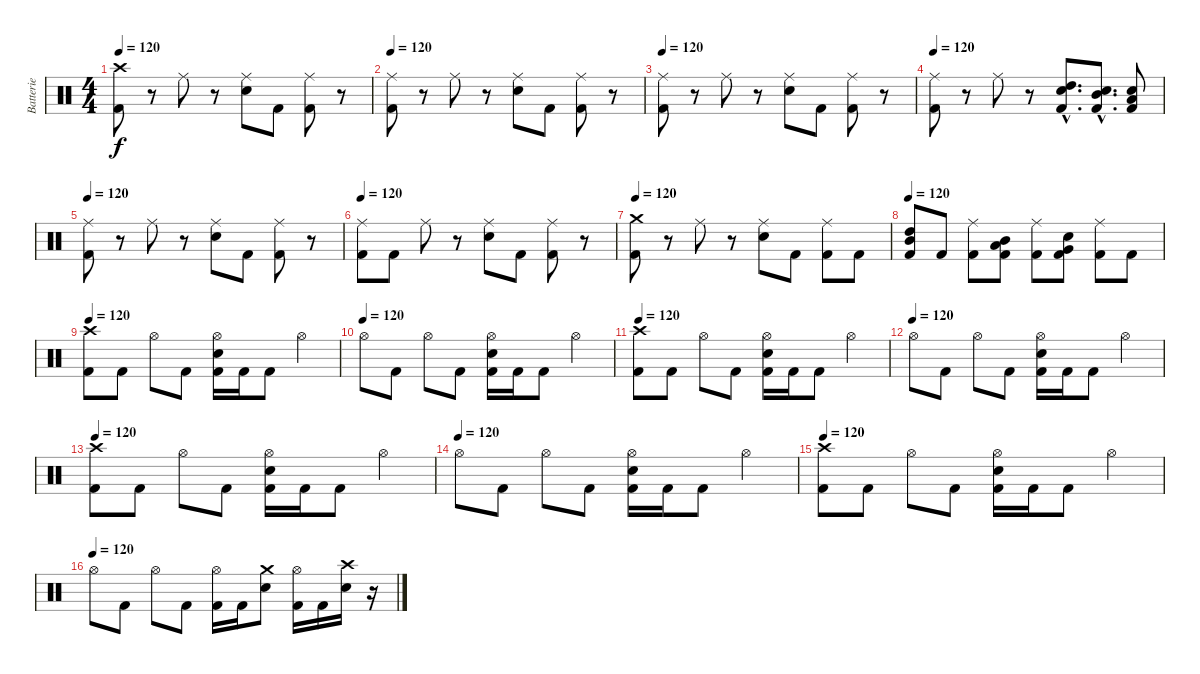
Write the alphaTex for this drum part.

\track ("Batterie" "Batterie") {instrument percussion}
\staff {score}
\articulation defaults
\ts (4 4)
\tempo 120
\clef neutral
\ks c
("Crash high (hit)" "Kick (hit) 2").8{dy f} r.8 "Ride (middle)".8 r.8 ("Ride (middle)" "Electric Snare (hit)").8 "Kick (hit) 2".8 ("Ride (middle)" "Kick (hit) 2").8 r.8 |
\tempo 120
("Ride (middle)" "Kick (hit) 2").8 r.8 "Ride (middle)".8 r.8 ("Ride (middle)" "Electric Snare (hit)").8 "Kick (hit) 2".8 ("Ride (middle)" "Kick (hit) 2").8 r.8 |
\tempo 120
("Ride (middle)" "Kick (hit) 2").8 r.8 "Ride (middle)".8 r.8 ("Ride (middle)" "Electric Snare (hit)").8 "Kick (hit) 2".8 ("Ride (middle)" "Kick (hit) 2").8 r.8 |
\tempo 120
("Ride (middle)" "Kick (hit) 2").8 r.8 "Ride (middle)".8 r.8 ("High Tom (hit)"{hac} "Electric Snare (hit)"{hac} "Kick (hit) 2"{hac}).8{d} ("Mid Tom (hit)"{hac} "Electric Snare (hit)"{hac} "Kick (hit) 2"{hac}).8{d} ("Low Tom (hit)" "Electric Snare (hit)" "Kick (hit) 2").8 |
\tempo 120
("Ride (middle)" "Kick (hit) 2").8 r.8 "Ride (middle)".8 r.8 ("Ride (middle)" "Electric Snare (hit)").8 "Kick (hit) 2".8 ("Ride (middle)" "Kick (hit) 2").8 r.8 |
\tempo 120
("Ride (middle)" "Kick (hit) 2").8 "Kick (hit) 2".8 "Ride (middle)".8 r.8 ("Ride (middle)" "Electric Snare (hit)").8 "Kick (hit) 2".8 ("Ride (middle)" "Kick (hit) 2").8 r.8 |
\tempo 120
("Crash medium (hit)" "Kick (hit) 2").8 r.8 "Ride (middle)".8 r.8 ("Ride (middle)" "Electric Snare (hit)").8 "Kick (hit) 2".8 ("Ride (middle)" "Kick (hit) 2").8 "Kick (hit) 2".8 |
\tempo 120
("Mid Tom (hit)" "High Tom (hit)" "Kick (hit) 2").8 "Kick (hit) 2".8 ("Ride (middle)" "Kick (hit) 2").8 ("Low Tom (hit)" "Mid Tom (hit)" "Kick (hit) 2").8 ("Ride (middle)" "Kick (hit) 2").8 ("Very Low Tom (hit)" "Electric Snare (hit)" "Kick (hit) 2").8 ("Ride (middle)" "Kick (hit) 2").8 "Kick (hit) 2".8 |
\tempo 120
("Crash high (hit)" "Kick (hit) 2").8 "Kick (hit) 2".8 "Hi-Hat (open)".8 "Kick (hit) 2".8 ("Hi-Hat (open)" "Electric Snare (hit)" "Kick (hit) 2").16 "Kick (hit) 2".16 "Kick (hit) 2".8 "Hi-Hat (open)".4 |
\tempo (120)
"Hi-Hat (open)".8 "Kick (hit) 2".8 "Hi-Hat (open)".8 "Kick (hit) 2".8 ("Hi-Hat (open)" "Electric Snare (hit)" "Kick (hit) 2").16 "Kick (hit) 2".16 "Kick (hit) 2".8 "Hi-Hat (open)".4 |
\tempo 120
("Crash high (hit)" "Kick (hit) 2").8 "Kick (hit) 2".8 "Hi-Hat (open)".8 "Kick (hit) 2".8 ("Hi-Hat (open)" "Electric Snare (hit)" "Kick (hit) 2").16 "Kick (hit) 2".16 "Kick (hit) 2".8 "Hi-Hat (open)".4 |
\tempo (120)
"Hi-Hat (open)".8 "Kick (hit) 2".8 "Hi-Hat (open)".8 "Kick (hit) 2".8 ("Hi-Hat (open)" "Electric Snare (hit)" "Kick (hit) 2").16 "Kick (hit) 2".16 "Kick (hit) 2".8 "Hi-Hat (open)".4 |
\tempo 120
("Crash high (hit)" "Kick (hit) 2").8 "Kick (hit) 2".8 "Hi-Hat (open)".8 "Kick (hit) 2".8 ("Hi-Hat (open)" "Electric Snare (hit)" "Kick (hit) 2").16 "Kick (hit) 2".16 "Kick (hit) 2".8 "Hi-Hat (open)".4 |
\tempo (120)
"Hi-Hat (open)".8 "Kick (hit) 2".8 "Hi-Hat (open)".8 "Kick (hit) 2".8 ("Hi-Hat (open)" "Electric Snare (hit)" "Kick (hit) 2").16 "Kick (hit) 2".16 "Kick (hit) 2".8 "Hi-Hat (open)".4 |
\tempo 120
("Crash high (hit)" "Kick (hit) 2").8 "Kick (hit) 2".8 "Hi-Hat (open)".8 "Kick (hit) 2".8 ("Hi-Hat (open)" "Electric Snare (hit)" "Kick (hit) 2").16 "Kick (hit) 2".16 "Kick (hit) 2".8 "Hi-Hat (open)".4 |
\tempo (120)
"Hi-Hat (open)".8 "Kick (hit) 2".8 "Hi-Hat (open)".8 "Kick (hit) 2".8 ("Hi-Hat (open)" "Kick (hit) 2").16 "Kick (hit) 2".16 ("Crash medium (hit)" "Electric Snare (hit)").8 ("Hi-Hat (open)" "Kick (hit) 2").16 "Kick (hit) 2".16 ("Crash high (hit)" "Electric Snare (hit)").16 r.16
